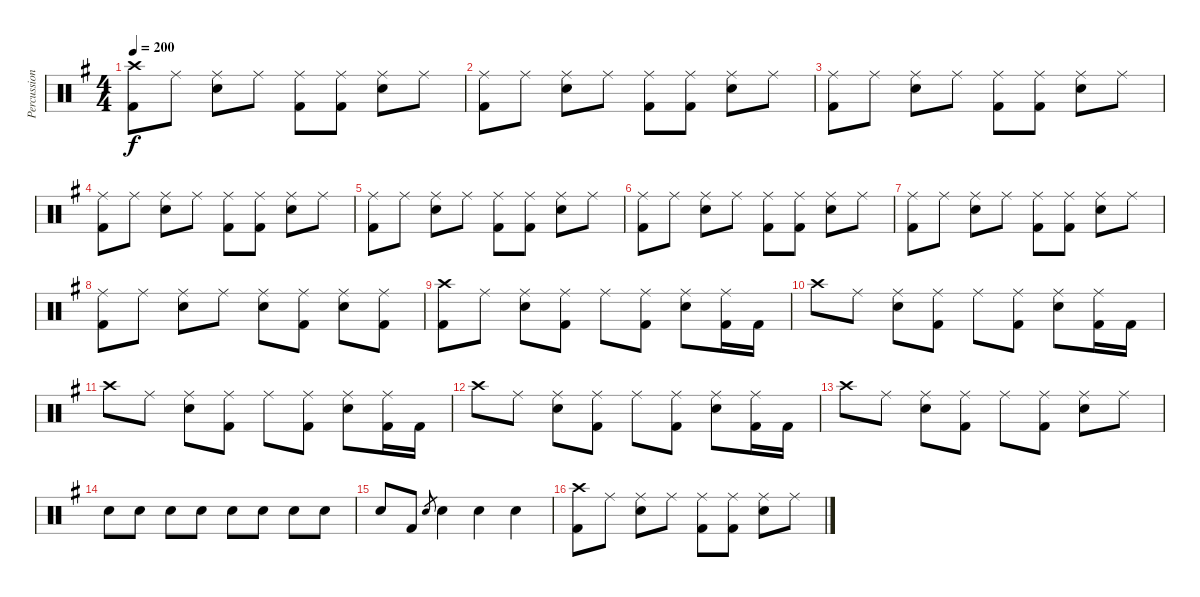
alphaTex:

\track ("Percussion" "Percussion") {instrument percussion}
\staff {score}
\articulation defaults
\ts (4 4)
\tempo 200
\clef neutral
\ks eminor
("Crash high (hit)" "Kick (hit) 2").8{dy f} "Ride (middle)".8 ("Ride (middle)" "Snare (hit) 2").8 "Ride (middle)".8 ("Ride (middle)" "Kick (hit) 2").8 ("Ride (middle)" "Kick (hit) 2").8 ("Ride (middle)" "Snare (hit) 2").8 "Ride (middle)".8 |
("Ride (middle)" "Kick (hit) 2").8 "Ride (middle)".8 ("Ride (middle)" "Snare (hit) 2").8 "Ride (middle)".8 ("Ride (middle)" "Kick (hit) 2").8 ("Ride (middle)" "Kick (hit) 2").8 ("Ride (middle)" "Snare (hit) 2").8 "Ride (middle)".8 |
("Ride (middle)" "Kick (hit) 2").8 "Ride (middle)".8 ("Ride (middle)" "Snare (hit) 2").8 "Ride (middle)".8 ("Ride (middle)" "Kick (hit) 2").8 ("Ride (middle)" "Kick (hit) 2").8 ("Ride (middle)" "Snare (hit) 2").8 "Ride (middle)".8 |
("Ride (middle)" "Kick (hit) 2").8 "Ride (middle)".8 ("Ride (middle)" "Snare (hit) 2").8 "Ride (middle)".8 ("Ride (middle)" "Kick (hit) 2").8 ("Ride (middle)" "Kick (hit) 2").8 ("Ride (middle)" "Snare (hit) 2").8 "Ride (middle)".8 |
("Ride (middle)" "Kick (hit) 2").8 "Ride (middle)".8 ("Ride (middle)" "Snare (hit) 2").8 "Ride (middle)".8 ("Ride (middle)" "Kick (hit) 2").8 ("Ride (middle)" "Kick (hit) 2").8 ("Ride (middle)" "Snare (hit) 2").8 "Ride (middle)".8 |
("Ride (middle)" "Kick (hit) 2").8 "Ride (middle)".8 ("Ride (middle)" "Snare (hit) 2").8 "Ride (middle)".8 ("Ride (middle)" "Kick (hit) 2").8 ("Ride (middle)" "Kick (hit) 2").8 ("Ride (middle)" "Snare (hit) 2").8 "Ride (middle)".8 |
("Ride (middle)" "Kick (hit) 2").8 "Ride (middle)".8 ("Ride (middle)" "Snare (hit) 2").8 "Ride (middle)".8 ("Ride (middle)" "Kick (hit) 2").8 ("Ride (middle)" "Kick (hit) 2").8 ("Ride (middle)" "Snare (hit) 2").8 "Ride (middle)".8 |
("Ride (middle)" "Kick (hit) 2").8 "Ride (middle)".8 ("Ride (middle)" "Snare (hit) 2").8 "Ride (middle)".8 ("Ride (middle)" "Snare (hit) 2").8 ("Ride (middle)" "Kick (hit) 2").8 ("Ride (middle)" "Snare (hit) 2").8 ("Ride (middle)" "Kick (hit) 2").8 |
("Crash high (hit)" "Kick (hit) 2").8 "Ride (middle)".8 ("Ride (middle)" "Snare (hit) 2").8 ("Ride (middle)" "Kick (hit) 2").8 "Ride (middle)".8 ("Ride (middle)" "Kick (hit) 2").8 ("Ride (middle)" "Snare (hit) 2").8 ("Ride (middle)" "Kick (hit) 2").16 "Kick (hit) 2".16 |
"Crash high (hit)".8 "Ride (middle)".8 ("Ride (middle)" "Snare (hit) 2").8 ("Ride (middle)" "Kick (hit) 2").8 "Ride (middle)".8 ("Ride (middle)" "Kick (hit) 2").8 ("Ride (middle)" "Snare (hit) 2").8 ("Ride (middle)" "Kick (hit) 2").16 "Kick (hit) 2".16 |
"Crash high (hit)".8 "Ride (middle)".8 ("Ride (middle)" "Snare (hit) 2").8 ("Ride (middle)" "Kick (hit) 2").8 "Ride (middle)".8 ("Ride (middle)" "Kick (hit) 2").8 ("Ride (middle)" "Snare (hit) 2").8 ("Ride (middle)" "Kick (hit) 2").16 "Kick (hit) 2".16 |
"Crash high (hit)".8 "Ride (middle)".8 ("Ride (middle)" "Snare (hit) 2").8 ("Ride (middle)" "Kick (hit) 2").8 "Ride (middle)".8 ("Ride (middle)" "Kick (hit) 2").8 ("Ride (middle)" "Snare (hit) 2").8 ("Ride (middle)" "Kick (hit) 2").16 "Kick (hit) 2".16 |
"Crash high (hit)".8 "Ride (middle)".8 ("Ride (middle)" "Snare (hit) 2").8 ("Ride (middle)" "Kick (hit) 2").8 "Ride (middle)".8 ("Ride (middle)" "Kick (hit) 2").8 ("Ride (middle)" "Snare (hit) 2").8 "Ride (middle)".8 |
"Snare (hit) 2".8 "Snare (hit) 2".8 "Snare (hit) 2".8 "Snare (hit) 2".8 "Snare (hit) 2".8 "Snare (hit) 2".8 "Snare (hit) 2".8 "Snare (hit) 2".8 |
"Snare (hit) 2".8 "Kick (hit) 2".8 "Snare (hit) 2".8{gr} "Snare (hit) 2".4 "Snare (hit) 2".4 "Snare (hit) 2".4 |
("Crash high (hit)" "Kick (hit) 2").8 "Ride (middle)".8 ("Ride (middle)" "Snare (hit) 2").8 "Ride (middle)".8 ("Ride (middle)" "Kick (hit) 2").8 ("Ride (middle)" "Kick (hit) 2").8 ("Ride (middle)" "Snare (hit) 2").8 "Ride (middle)".8
